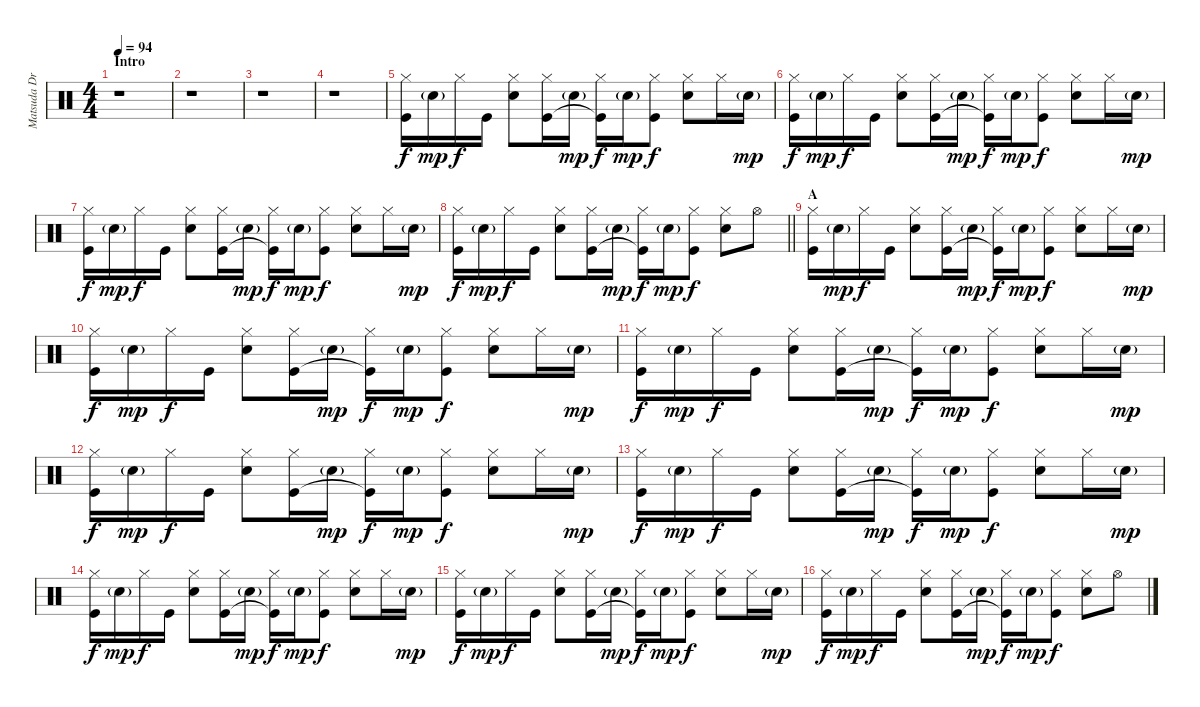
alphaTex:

\track ("Matsuda Drums" "Matsuda Dr") {instrument percussion}
\staff {score}
\articulation defaults
\ts (4 4)
\section ("" "Intro")
\tempo 94
\clef neutral
\ks c
r.1{dy f} |
r.1 |
r.1 |
r.1 |
("Hi-Hat (closed)" "Kick (hit)").16 "Snare (hit) 2"{g}.16{dy mp} "Hi-Hat (closed)".16{dy f} "Kick (hit)".16 ("Hi-Hat (closed)" "Snare (hit) 2").8 ("Hi-Hat (closed)" "Kick (hit)").16 "Snare (hit) 2"{g}.16{dy mp} ("Hi-Hat (closed)" "Kick (hit)"{t}).16{dy f} "Snare (hit) 2"{g}.16{dy mp} ("Hi-Hat (closed)" "Kick (hit)").8{dy f} ("Hi-Hat (closed)" "Snare (hit) 2").8 "Hi-Hat (closed)".16 "Snare (hit) 2"{g}.16{dy mp} |
("Hi-Hat (closed)" "Kick (hit)").16{dy f} "Snare (hit) 2"{g}.16{dy mp} "Hi-Hat (closed)".16{dy f} "Kick (hit)".16 ("Hi-Hat (closed)" "Snare (hit) 2").8 ("Hi-Hat (closed)" "Kick (hit)").16 "Snare (hit) 2"{g}.16{dy mp} ("Hi-Hat (closed)" "Kick (hit)"{t}).16{dy f} "Snare (hit) 2"{g}.16{dy mp} ("Hi-Hat (closed)" "Kick (hit)").8{dy f} ("Hi-Hat (closed)" "Snare (hit) 2").8 "Hi-Hat (closed)".16 "Snare (hit) 2"{g}.16{dy mp} |
("Hi-Hat (closed)" "Kick (hit)").16{dy f} "Snare (hit) 2"{g}.16{dy mp} "Hi-Hat (closed)".16{dy f} "Kick (hit)".16 ("Hi-Hat (closed)" "Snare (hit) 2").8 ("Hi-Hat (closed)" "Kick (hit)").16 "Snare (hit) 2"{g}.16{dy mp} ("Hi-Hat (closed)" "Kick (hit)"{t}).16{dy f} "Snare (hit) 2"{g}.16{dy mp} ("Hi-Hat (closed)" "Kick (hit)").8{dy f} ("Hi-Hat (closed)" "Snare (hit) 2").8 "Hi-Hat (closed)".16 "Snare (hit) 2"{g}.16{dy mp} |
\barLineRight lightlight
("Hi-Hat (closed)" "Kick (hit)").16{dy f} "Snare (hit) 2"{g}.16{dy mp} "Hi-Hat (closed)".16{dy f} "Kick (hit)".16 ("Hi-Hat (closed)" "Snare (hit) 2").8 ("Hi-Hat (closed)" "Kick (hit)").16 "Snare (hit) 2"{g}.16{dy mp} ("Hi-Hat (closed)" "Kick (hit)"{t}).16{dy f} "Snare (hit) 2"{g}.16{dy mp} ("Hi-Hat (closed)" "Kick (hit)").8{dy f} ("Hi-Hat (closed)" "Snare (hit) 2").8 "Hi-Hat (open)".8 |
\section ("" "A")
("Hi-Hat (closed)" "Kick (hit)").16 "Snare (hit) 2"{g}.16{dy mp} "Hi-Hat (closed)".16{dy f} "Kick (hit)".16 ("Hi-Hat (closed)" "Snare (hit) 2").8 ("Hi-Hat (closed)" "Kick (hit)").16 "Snare (hit) 2"{g}.16{dy mp} ("Hi-Hat (closed)" "Kick (hit)"{t}).16{dy f} "Snare (hit) 2"{g}.16{dy mp} ("Hi-Hat (closed)" "Kick (hit)").8{dy f} ("Hi-Hat (closed)" "Snare (hit) 2").8 "Hi-Hat (closed)".16 "Snare (hit) 2"{g}.16{dy mp} |
("Hi-Hat (closed)" "Kick (hit)").16{dy f} "Snare (hit) 2"{g}.16{dy mp} "Hi-Hat (closed)".16{dy f} "Kick (hit)".16 ("Hi-Hat (closed)" "Snare (hit) 2").8 ("Hi-Hat (closed)" "Kick (hit)").16 "Snare (hit) 2"{g}.16{dy mp} ("Hi-Hat (closed)" "Kick (hit)"{t}).16{dy f} "Snare (hit) 2"{g}.16{dy mp} ("Hi-Hat (closed)" "Kick (hit)").8{dy f} ("Hi-Hat (closed)" "Snare (hit) 2").8 "Hi-Hat (closed)".16 "Snare (hit) 2"{g}.16{dy mp} |
("Hi-Hat (closed)" "Kick (hit)").16{dy f} "Snare (hit) 2"{g}.16{dy mp} "Hi-Hat (closed)".16{dy f} "Kick (hit)".16 ("Hi-Hat (closed)" "Snare (hit) 2").8 ("Hi-Hat (closed)" "Kick (hit)").16 "Snare (hit) 2"{g}.16{dy mp} ("Hi-Hat (closed)" "Kick (hit)"{t}).16{dy f} "Snare (hit) 2"{g}.16{dy mp} ("Hi-Hat (closed)" "Kick (hit)").8{dy f} ("Hi-Hat (closed)" "Snare (hit) 2").8 "Hi-Hat (closed)".16 "Snare (hit) 2"{g}.16{dy mp} |
("Hi-Hat (closed)" "Kick (hit)").16{dy f} "Snare (hit) 2"{g}.16{dy mp} "Hi-Hat (closed)".16{dy f} "Kick (hit)".16 ("Hi-Hat (closed)" "Snare (hit) 2").8 ("Hi-Hat (closed)" "Kick (hit)").16 "Snare (hit) 2"{g}.16{dy mp} ("Hi-Hat (closed)" "Kick (hit)"{t}).16{dy f} "Snare (hit) 2"{g}.16{dy mp} ("Hi-Hat (closed)" "Kick (hit)").8{dy f} ("Hi-Hat (closed)" "Snare (hit) 2").8 "Hi-Hat (closed)".16 "Snare (hit) 2"{g}.16{dy mp} |
("Hi-Hat (closed)" "Kick (hit)").16{dy f} "Snare (hit) 2"{g}.16{dy mp} "Hi-Hat (closed)".16{dy f} "Kick (hit)".16 ("Hi-Hat (closed)" "Snare (hit) 2").8 ("Hi-Hat (closed)" "Kick (hit)").16 "Snare (hit) 2"{g}.16{dy mp} ("Hi-Hat (closed)" "Kick (hit)"{t}).16{dy f} "Snare (hit) 2"{g}.16{dy mp} ("Hi-Hat (closed)" "Kick (hit)").8{dy f} ("Hi-Hat (closed)" "Snare (hit) 2").8 "Hi-Hat (closed)".16 "Snare (hit) 2"{g}.16{dy mp} |
("Hi-Hat (closed)" "Kick (hit)").16{dy f} "Snare (hit) 2"{g}.16{dy mp} "Hi-Hat (closed)".16{dy f} "Kick (hit)".16 ("Hi-Hat (closed)" "Snare (hit) 2").8 ("Hi-Hat (closed)" "Kick (hit)").16 "Snare (hit) 2"{g}.16{dy mp} ("Hi-Hat (closed)" "Kick (hit)"{t}).16{dy f} "Snare (hit) 2"{g}.16{dy mp} ("Hi-Hat (closed)" "Kick (hit)").8{dy f} ("Hi-Hat (closed)" "Snare (hit) 2").8 "Hi-Hat (closed)".16 "Snare (hit) 2"{g}.16{dy mp} |
("Hi-Hat (closed)" "Kick (hit)").16{dy f} "Snare (hit) 2"{g}.16{dy mp} "Hi-Hat (closed)".16{dy f} "Kick (hit)".16 ("Hi-Hat (closed)" "Snare (hit) 2").8 ("Hi-Hat (closed)" "Kick (hit)").16 "Snare (hit) 2"{g}.16{dy mp} ("Hi-Hat (closed)" "Kick (hit)"{t}).16{dy f} "Snare (hit) 2"{g}.16{dy mp} ("Hi-Hat (closed)" "Kick (hit)").8{dy f} ("Hi-Hat (closed)" "Snare (hit) 2").8 "Hi-Hat (closed)".16 "Snare (hit) 2"{g}.16{dy mp} |
("Hi-Hat (closed)" "Kick (hit)").16{dy f} "Snare (hit) 2"{g}.16{dy mp} "Hi-Hat (closed)".16{dy f} "Kick (hit)".16 ("Hi-Hat (closed)" "Snare (hit) 2").8 ("Hi-Hat (closed)" "Kick (hit)").16 "Snare (hit) 2"{g}.16{dy mp} ("Hi-Hat (closed)" "Kick (hit)"{t}).16{dy f} "Snare (hit) 2"{g}.16{dy mp} ("Hi-Hat (closed)" "Kick (hit)").8{dy f} ("Hi-Hat (closed)" "Snare (hit) 2").8 "Hi-Hat (open)".8
